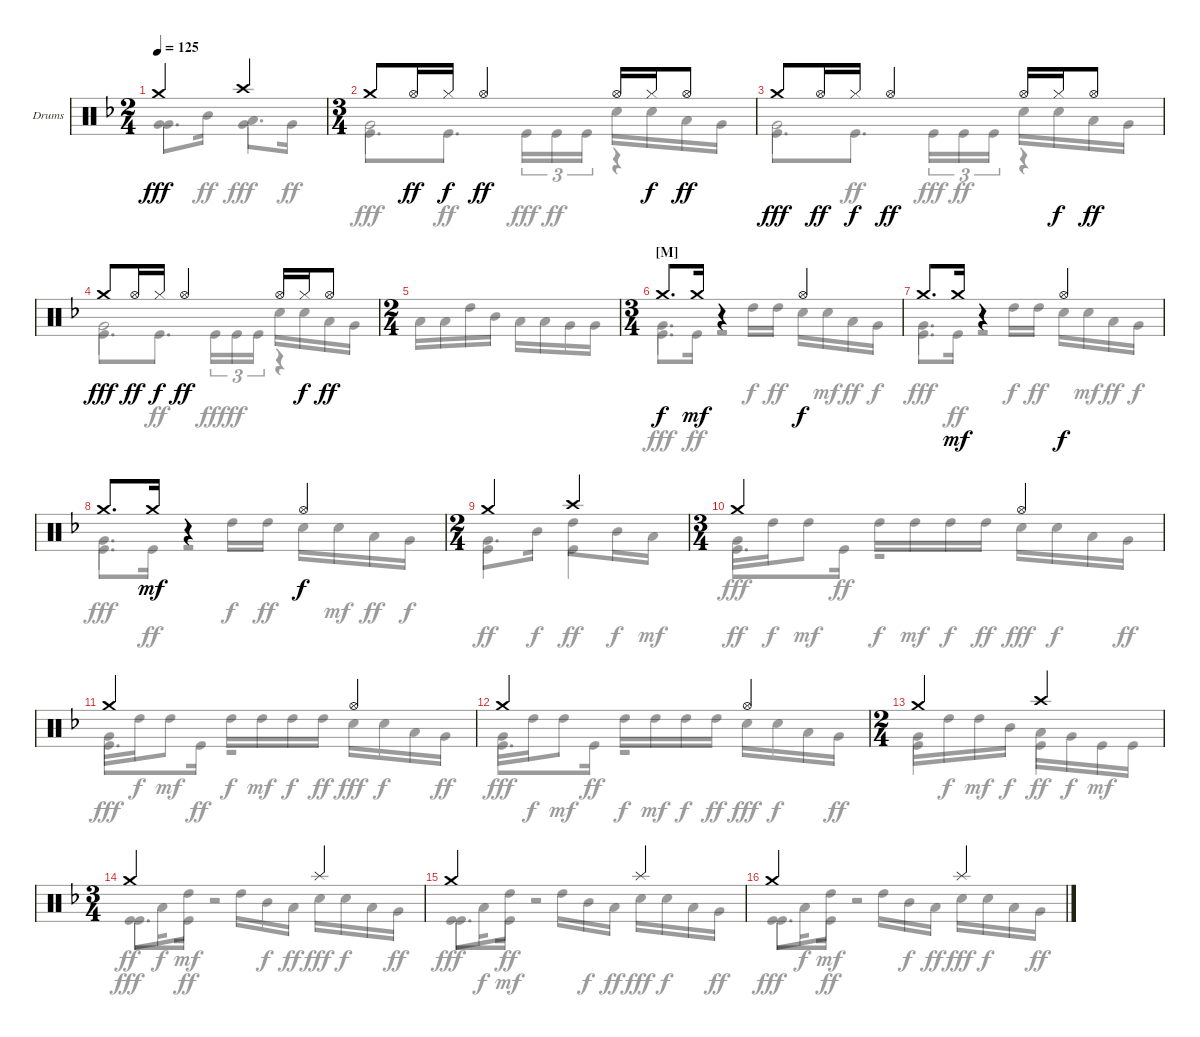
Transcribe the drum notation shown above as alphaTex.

\defaultSystemsLayout 4
\bracketExtendMode groupsimilarinstruments
\firstSystemTrackNameOrientation horizontal
\otherSystemsTrackNameOrientation horizontal
\track ("Drumkit" "Drums") {instrument percussion}
\staff {score}
\articulation defaults
\voice
\ts (2 4)
\tempo 125
\clef neutral
\ks f "Crash medium (hit)".4{dy fff} "Crash high (hit)".4
|
\ts (3 4)
"Crash medium (hit)".8 "Hi-Hat (open)".16{dy ff} "Hi-Hat (closed)".16{dy f} "Hi-Hat (open)".4{dy ff} "Hi-Hat (open)".16 "Hi-Hat (closed)".16{dy f} "Hi-Hat (open)".8{dy ff} |
"Crash medium (hit)".8{dy fff} "Hi-Hat (open)".16{dy ff} "Hi-Hat (closed)".16{dy f} "Hi-Hat (open)".4{dy ff} "Hi-Hat (open)".16 "Hi-Hat (closed)".16{dy f} "Hi-Hat (open)".8{dy ff} |
"Crash medium (hit)".8{dy fff} "Hi-Hat (open)".16{dy ff} "Hi-Hat (closed)".16{dy f} "Hi-Hat (open)".4{dy ff} "Hi-Hat (open)".16 "Hi-Hat (closed)".16{dy f} "Hi-Hat (open)".8{dy ff} |
\ts (2 4)
|
\ts (3 4)
\section ("M" "")
"Crash medium (hit)".8{d dy f} "Crash medium (hit)".16{dy mf} r.4 "Hi-Hat (open)".4{dy f} |
"Crash medium (hit)".8{d} "Crash medium (hit)".16{dy mf} r.4 "Hi-Hat (open)".4{dy f} |
"Crash medium (hit)".8{d} "Crash medium (hit)".16{dy mf} r.4 "Hi-Hat (open)".4{dy f} |
\ts (2 4)
"Crash medium (hit)".4 "Crash high (hit)".4 |
\ts (3 4)
"Crash medium (hit)".2 "Hi-Hat (open)".4 |
"Crash medium (hit)".2 "Hi-Hat (open)".4 |
"Crash medium (hit)".2 "Hi-Hat (open)".4 |
\ts (2 4)
"Crash medium (hit)".4 "Crash high (hit)".4 |
\ts (3 4)
"Crash medium (hit)".2 "Splash (hit)".4 |
"Crash medium (hit)".2 "Splash (hit)".4 |
"Crash medium (hit)".2 "Splash (hit)".4
\voice
\clef neutral
\ottava regular
\simile none
\ks f "Very Low Tom (hit)".8{d dy fff} "Mid Tom (hit)".16{dy ff} "Low Tom (hit)".8{d dy fff} "Very Low Tom (hit)".16{dy ff}
|
"Very Low Tom (hit)".2{dy fff} "Snare (hit) 2".16 "Snare (hit) 2".16 "Low Tom (hit)".16 "Very Low Tom (hit)".16 |
"Very Low Tom (hit)".2 "Snare (hit) 2".16 "Snare (hit) 2".16 "Low Tom (hit)".16 "Very Low Tom (hit)".16 |
"Very Low Tom (hit)".2 "Snare (hit) 2".16 "Snare (hit) 2".16 "Low Tom (hit)".16 "Very Low Tom (hit)".16 |
"Low Tom (hit)".16 "Low Tom (hit)".16 "High Tom (hit)".16 "Mid Tom (hit)".16 "Low Tom (hit)".16 "Low Tom (hit)".16 "Very Low Tom (hit)".16 "Very Low Tom (hit)".16 |
"Very Low Tom (hit)".4{d} "High Tom (hit)".16{dy f} "High Tom (hit)".16{dy ff} "Snare (hit) 2".16 "Snare (hit) 2".16{dy mf} "Low Tom (hit)".16{dy ff} "Very Low Tom (hit)".16{dy f} |
"Very Low Tom (hit)".4{d dy fff} "High Tom (hit)".16{dy f} "High Tom (hit)".16{dy ff} "Snare (hit) 2".16 "Snare (hit) 2".16{dy mf} "Low Tom (hit)".16{dy ff} "Very Low Tom (hit)".16{dy f} |
"Very Low Tom (hit)".4{d dy fff} "High Tom (hit)".16{dy f} "High Tom (hit)".16{dy ff} "Snare (hit) 2".16 "Snare (hit) 2".16{dy mf} "Low Tom (hit)".16{dy ff} "Very Low Tom (hit)".16{dy f} |
"Very Low Tom (hit)".8{d dy ff} "Mid Tom (hit)".16{dy f} "High Tom (hit)".8{dy ff} "Mid Tom (hit)".16{dy f} "Low Tom (hit)".16{dy mf} |
"Very Low Tom (hit)".16{dy ff} "High Tom (hit)".16{dy f} "High Tom (hit)".8{dy mf} "High Tom (hit)".16{dy f} "High Tom (hit)".16{dy mf} "High Tom (hit)".16{dy f} "High Tom (hit)".16{dy ff} "Snare (hit) 2".16{dy fff} "Snare (hit) 2".16{dy f} "Low Tom (hit)".16 "Very Low Tom (hit)".16{dy ff} |
"Very Low Tom (hit)".16 "High Tom (hit)".16{dy f} "High Tom (hit)".8{dy mf} "High Tom (hit)".16{dy f} "High Tom (hit)".16{dy mf} "High Tom (hit)".16{dy f} "High Tom (hit)".16{dy ff} "Snare (hit) 2".16{dy fff} "Snare (hit) 2".16{dy f} "Low Tom (hit)".16 "Very Low Tom (hit)".16{dy ff} |
"Very Low Tom (hit)".16 "High Tom (hit)".16{dy f} "High Tom (hit)".8{dy mf} "High Tom (hit)".16{dy f} "High Tom (hit)".16{dy mf} "High Tom (hit)".16{dy f} "High Tom (hit)".16{dy ff} "Snare (hit) 2".16{dy fff} "Snare (hit) 2".16{dy f} "Low Tom (hit)".16 "Very Low Tom (hit)".16{dy ff} |
"Very Low Tom (hit)".16 "High Tom (hit)".16{dy f} "High Tom (hit)".16{dy mf} "Mid Tom (hit)".16{dy f} "Low Tom (hit)".16{dy ff} "Very Low Tom (hit)".16{dy f} "Kick (hit)".16{dy mf} "Kick (hit)".16 |
"Kick (hit)".8{dy ff} "Low Tom (hit)".16{dy f} "High Tom (hit)".8{dy mf} "High Tom (hit)".16 "Mid Tom (hit)".16{dy f} "Low Tom (hit)".16{dy ff} "Snare (hit) 2".16{dy fff} "Snare (hit) 2".16{dy f} "Low Tom (hit)".16 "Very Low Tom (hit)".16{dy ff} |
"Kick (hit)".8 "Low Tom (hit)".16{dy f} "High Tom (hit)".8{dy mf} "High Tom (hit)".16 "Mid Tom (hit)".16{dy f} "Low Tom (hit)".16{dy ff} "Snare (hit) 2".16{dy fff} "Snare (hit) 2".16{dy f} "Low Tom (hit)".16 "Very Low Tom (hit)".16{dy ff} |
"Kick (hit)".8 "Low Tom (hit)".16{dy f} "High Tom (hit)".8{dy mf} "High Tom (hit)".16 "Mid Tom (hit)".16{dy f} "Low Tom (hit)".16{dy ff} "Snare (hit) 2".16{dy fff} "Snare (hit) 2".16{dy f} "Low Tom (hit)".16 "Very Low Tom (hit)".16{dy ff}
\voice
\clef neutral
\ottava regular
\simile none
\ks f "Very Low Tom (hit)".4{dy fff} "Very Low Tom (hit)".4
|
"Kick (hit)".8{d} "Kick (hit)".8{d dy ff} "Kick (hit)".16{tu (3 2) dy fff} "Kick (hit)".16{tu (3 2) dy ff} "Kick (hit)".16{tu (3 2)} r.4 |
"Kick (hit)".8{d dy fff} "Kick (hit)".8{d dy ff} "Kick (hit)".16{tu (3 2) dy fff} "Kick (hit)".16{tu (3 2) dy ff} "Kick (hit)".16{tu (3 2)} r.4 |
"Kick (hit)".8{d dy fff} "Kick (hit)".8{d dy ff} "Kick (hit)".16{tu (3 2) dy fff} "Kick (hit)".16{tu (3 2) dy ff} "Kick (hit)".16{tu (3 2)} r.4 |
|
"Kick (hit)".8{d dy fff} "Kick (hit)".16{dy ff} r.2 |
"Kick (hit)".8{d dy fff} "Kick (hit)".16{dy ff} r.2 |
"Kick (hit)".8{d dy fff} "Kick (hit)".16{dy ff} r.2 |
"Kick (hit)".4 "Kick (hit)".4 |
"Kick (hit)".8{d dy fff} "Kick (hit)".16{dy ff} r.2 |
"Kick (hit)".8{d dy fff} "Kick (hit)".16{dy ff} r.2 |
"Kick (hit)".8{d dy fff} "Kick (hit)".16{dy ff} r.2 |
"Kick (hit)".4 "Kick (hit)".4 |
"Kick (hit)".8{d dy fff} "Kick (hit)".16{dy ff} r.2 |
"Kick (hit)".8{d dy fff} "Kick (hit)".16{dy ff} r.2 |
"Kick (hit)".8{d dy fff} "Kick (hit)".16{dy ff} r.2
